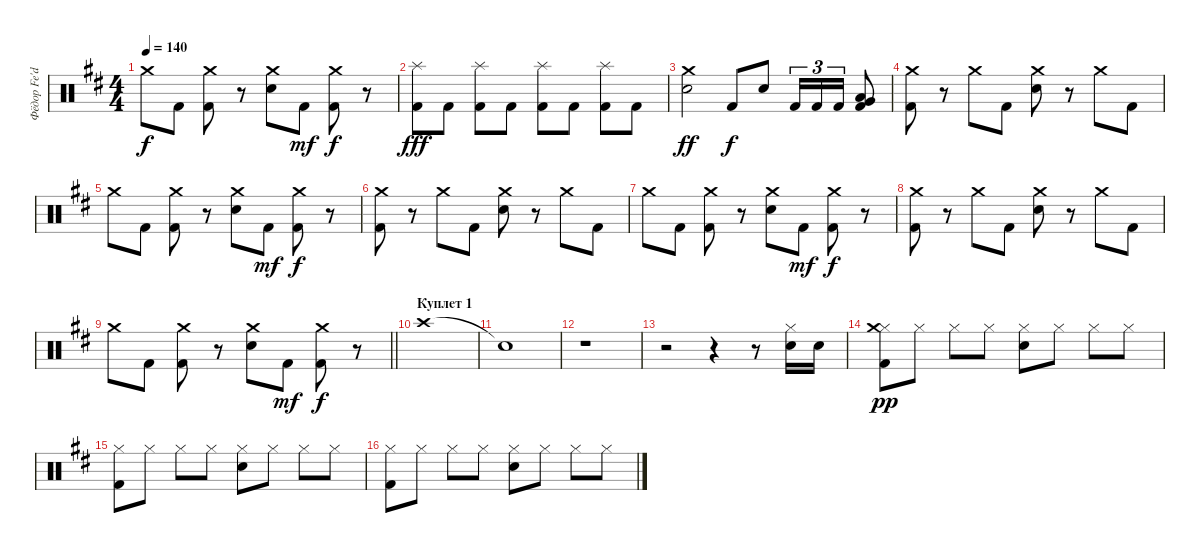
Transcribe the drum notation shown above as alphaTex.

\track ("Фёдор Fe'dor Локшин" "Фёдор Fe'd") {instrument percussion}
\staff {score}
\articulation defaults
\ts (4 4)
\tempo 140
\clef neutral
\ks bminor "Crash medium (hit)".8{dy f} "Kick (hit) 2".8
("Crash medium (hit)" "Kick (hit) 2").8 r.8 ("Crash medium (hit)" "Snare (hit) 2").8 "Kick (hit) 2".8{dy mf} ("Crash medium (hit)" "Kick (hit) 2").8{dy f} r.8 |
("Splash (hit)" "Kick (hit) 2").8{dy fff} "Kick (hit) 2".8 ("Splash (hit)" "Kick (hit) 2").8 "Kick (hit) 2".8 ("Splash (hit)" "Kick (hit) 2").8 "Kick (hit) 2".8 ("Splash (hit)" "Kick (hit) 2").8 "Kick (hit) 2".8 |
("Crash medium (hit)" "Snare (hit) 2").2{dy ff} "Kick (hit) 2".8{dy f} "Snare (hit) 2".8 "Kick (hit) 2".16{tu (3 2)} "Kick (hit) 2".16{tu (3 2)} "Kick (hit) 2".16{tu (3 2)} ("Very Low Tom (hit)" "Low Floor Tom (hit)" "Kick (hit) 2").8 |
("Crash medium (hit)" "Kick (hit) 2").8 r.8 "Crash medium (hit)".8 "Kick (hit) 2".8 ("Crash medium (hit)" "Snare (hit) 2").8 r.8 "Crash medium (hit)".8 "Kick (hit) 2".8 |
"Crash medium (hit)".8 "Kick (hit) 2".8 ("Crash medium (hit)" "Kick (hit) 2").8 r.8 ("Crash medium (hit)" "Snare (hit) 2").8 "Kick (hit) 2".8{dy mf} ("Crash medium (hit)" "Kick (hit) 2").8{dy f} r.8 |
("Crash medium (hit)" "Kick (hit) 2").8 r.8 "Crash medium (hit)".8 "Kick (hit) 2".8 ("Crash medium (hit)" "Snare (hit) 2").8 r.8 "Crash medium (hit)".8 "Kick (hit) 2".8 |
"Crash medium (hit)".8 "Kick (hit) 2".8 ("Crash medium (hit)" "Kick (hit) 2").8 r.8 ("Crash medium (hit)" "Snare (hit) 2").8 "Kick (hit) 2".8{dy mf} ("Crash medium (hit)" "Kick (hit) 2").8{dy f} r.8 |
("Crash medium (hit)" "Kick (hit) 2").8 r.8 "Crash medium (hit)".8 "Kick (hit) 2".8 ("Crash medium (hit)" "Snare (hit) 2").8 r.8 "Crash medium (hit)".8 "Kick (hit) 2".8 |
\barLineRight lightlight "Crash medium (hit)".8 "Kick (hit) 2".8
("Crash medium (hit)" "Kick (hit) 2").8 r.8 ("Crash medium (hit)" "Snare (hit) 2").8 "Kick (hit) 2".8{dy mf} ("Crash medium (hit)" "Kick (hit) 2").8{dy f} r.8 |
\section ("" "Куплет 1")
"Crash high (hit)".1 |
"Snare (hit)"{t}.1 |
r.1 |
r.2 r.4 r.8 ("Hi-Hat (closed)" "Snare (hit) 2").16 "Snare (hit) 2".16 |
("Hi-Hat (closed)" "Crash medium (hit)" "Kick (hit) 2").8{dy pp} "Hi-Hat (closed)".8 "Hi-Hat (closed)".8 "Hi-Hat (closed)".8 ("Hi-Hat (closed)" "Snare (hit) 2").8 "Hi-Hat (closed)".8 "Hi-Hat (closed)".8 "Hi-Hat (closed)".8 |
("Hi-Hat (closed)" "Kick (hit) 2").8 "Hi-Hat (closed)".8 "Hi-Hat (closed)".8 "Hi-Hat (closed)".8 ("Hi-Hat (closed)" "Snare (hit) 2").8 "Hi-Hat (closed)".8 "Hi-Hat (closed)".8 "Hi-Hat (closed)".8 |
("Hi-Hat (closed)" "Kick (hit) 2").8 "Hi-Hat (closed)".8 "Hi-Hat (closed)".8 "Hi-Hat (closed)".8 ("Hi-Hat (closed)" "Snare (hit) 2").8 "Hi-Hat (closed)".8 "Hi-Hat (closed)".8 "Hi-Hat (closed)".8
